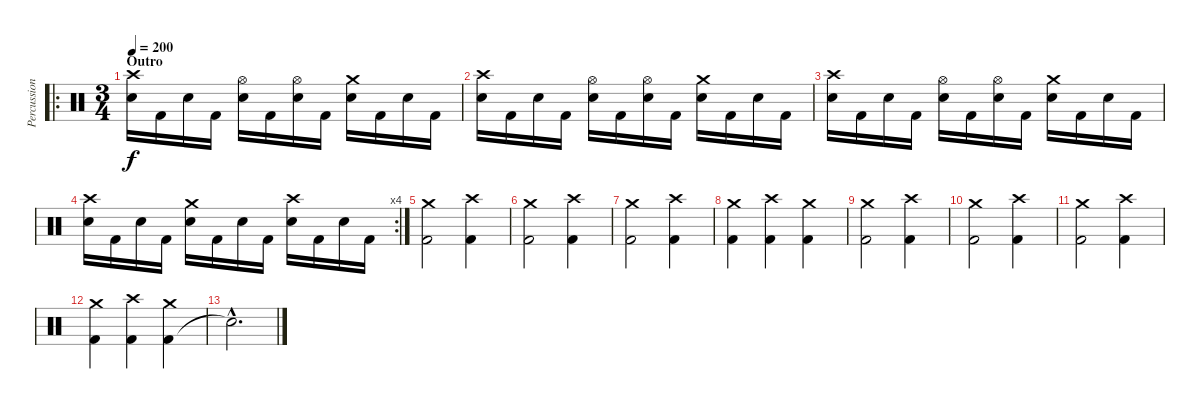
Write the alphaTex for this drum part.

\track ("Percussion" "Percussion") {instrument percussion}
\staff {score}
\articulation defaults
\ro
\ts (3 4)
\section ("" "Outro")
\tempo 200
\clef neutral
\ks c
("Snare (hit) 2" "Crash high (hit)").16{dy f} "Kick (hit) 2".16 "Snare (hit) 2".16 "Kick (hit) 2".16 ("Snare (hit) 2" "Hi-Hat (open)").16 "Kick (hit) 2".16 ("Snare (hit) 2" "Hi-Hat (open)").16 "Kick (hit) 2".16 ("Snare (hit) 2" "Crash medium (hit)").16 "Kick (hit) 2".16 "Snare (hit) 2".16 "Kick (hit) 2".16 |
("Snare (hit) 2" "Crash high (hit)").16 "Kick (hit) 2".16 "Snare (hit) 2".16 "Kick (hit) 2".16 ("Snare (hit) 2" "Hi-Hat (open)").16 "Kick (hit) 2".16 ("Snare (hit) 2" "Hi-Hat (open)").16 "Kick (hit) 2".16 ("Snare (hit) 2" "Crash medium (hit)").16 "Kick (hit) 2".16 "Snare (hit) 2".16 "Kick (hit) 2".16 |
("Snare (hit) 2" "Crash high (hit)").16 "Kick (hit) 2".16 "Snare (hit) 2".16 "Kick (hit) 2".16 ("Snare (hit) 2" "Hi-Hat (open)").16 "Kick (hit) 2".16 ("Snare (hit) 2" "Hi-Hat (open)").16 "Kick (hit) 2".16 ("Snare (hit) 2" "Crash medium (hit)").16 "Kick (hit) 2".16 "Snare (hit) 2".16 "Kick (hit) 2".16 |
\rc 4
("Snare (hit) 2" "Crash high (hit)").16 "Kick (hit) 2".16 "Snare (hit) 2".16 "Kick (hit) 2".16 ("Snare (hit) 2" "Crash medium (hit)").16 "Kick (hit) 2".16 "Snare (hit) 2".16 "Kick (hit) 2".16 ("Snare (hit) 2" "Crash high (hit)").16 "Kick (hit) 2".16 "Snare (hit) 2".16 "Kick (hit) 2".16 |
("Kick (hit) 2" "Crash medium (hit)").2 ("Kick (hit) 2" "Crash high (hit)").4 |
("Kick (hit) 2" "Crash medium (hit)").2 ("Kick (hit) 2" "Crash high (hit)").4 |
("Kick (hit) 2" "Crash medium (hit)").2 ("Kick (hit) 2" "Crash high (hit)").4 |
("Kick (hit) 2" "Crash medium (hit)").4 ("Kick (hit) 2" "Crash high (hit)").4 ("Kick (hit) 2" "Crash medium (hit)").4 |
("Kick (hit) 2" "Crash medium (hit)").2 ("Kick (hit) 2" "Crash high (hit)").4 |
("Kick (hit) 2" "Crash medium (hit)").2 ("Kick (hit) 2" "Crash high (hit)").4 |
("Kick (hit) 2" "Crash medium (hit)").2 ("Kick (hit) 2" "Crash high (hit)").4 |
("Kick (hit) 2" "Crash medium (hit)").4 ("Kick (hit) 2" "Crash high (hit)").4 ("Kick (hit) 2" "Crash medium (hit)").4 |
"Snare (hit)"{hac t}.2{d}
